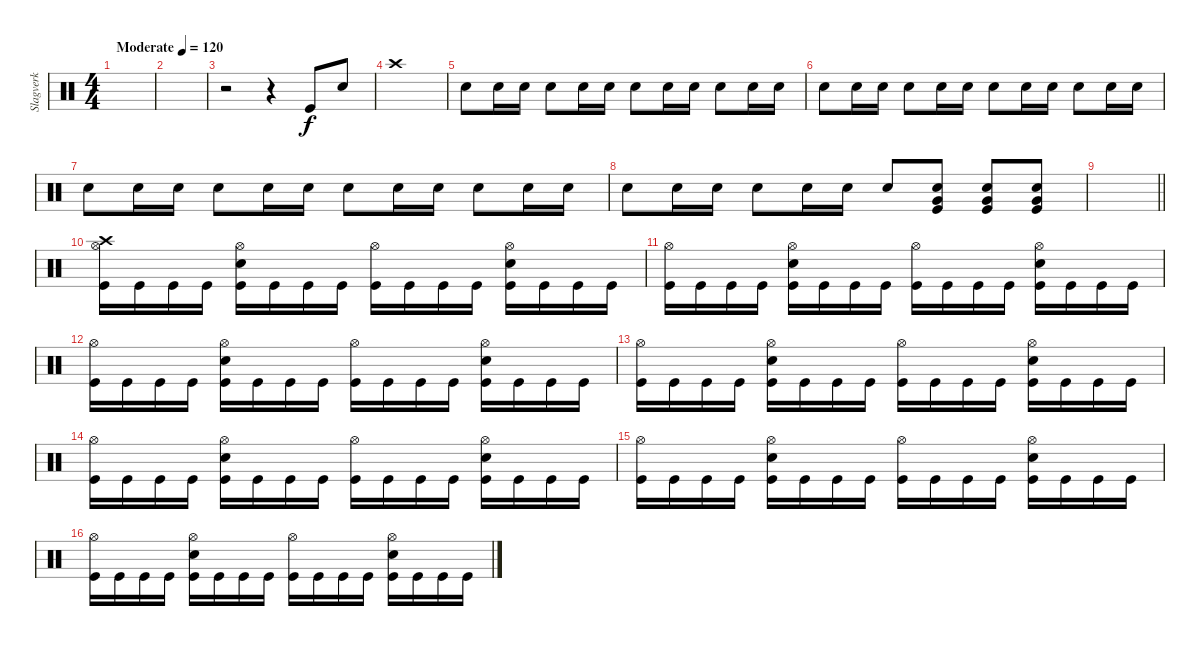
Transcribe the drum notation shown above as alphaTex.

\track ("Slagverk" "Slagverk") {instrument percussion}
\staff {score}
\articulation defaults
\ts (4 4)
\tempo (120 "Moderate")
\tempo 165
\tempo (120 "Moderate")
\clef neutral
\ks c
|
|
r.2 r.4 "Kick (hit)".8 "Electric Snare (hit)".8 |
"Crash high (hit)".1 |
"Electric Snare (hit)".8{volume 2} "Electric Snare (hit)".16 "Electric Snare (hit)".16 "Electric Snare (hit)".8 "Electric Snare (hit)".16 "Electric Snare (hit)".16 "Electric Snare (hit)".8{volume 4} "Electric Snare (hit)".16 "Electric Snare (hit)".16 "Electric Snare (hit)".8 "Electric Snare (hit)".16 "Electric Snare (hit)".16 |
"Electric Snare (hit)".8{volume 6} "Electric Snare (hit)".16 "Electric Snare (hit)".16 "Electric Snare (hit)".8 "Electric Snare (hit)".16 "Electric Snare (hit)".16 "Electric Snare (hit)".8{volume 8} "Electric Snare (hit)".16 "Electric Snare (hit)".16 "Electric Snare (hit)".8 "Electric Snare (hit)".16 "Electric Snare (hit)".16 |
"Electric Snare (hit)".8{volume 10} "Electric Snare (hit)".16 "Electric Snare (hit)".16 "Electric Snare (hit)".8 "Electric Snare (hit)".16 "Electric Snare (hit)".16 "Electric Snare (hit)".8{volume 12} "Electric Snare (hit)".16 "Electric Snare (hit)".16 "Electric Snare (hit)".8 "Electric Snare (hit)".16 "Electric Snare (hit)".16 |
"Electric Snare (hit)".8{volume 13} "Electric Snare (hit)".16 "Electric Snare (hit)".16 "Electric Snare (hit)".8 "Electric Snare (hit)".16 "Electric Snare (hit)".16 "Electric Snare (hit)".8 ("Very Low Tom (hit)" "Electric Snare (hit)" "Kick (hit)").8 ("Very Low Tom (hit)" "Electric Snare (hit)" "Kick (hit)").8 ("Very Low Tom (hit)" "Electric Snare (hit)" "Kick (hit)").8 |
\barLineRight lightlight
|
("Crash high (hit)" "Hi-Hat (open)" "Kick (hit)").16 "Kick (hit)".16 "Kick (hit)".16 "Kick (hit)".16 ("Hi-Hat (open)" "Electric Snare (hit)" "Kick (hit)").16 "Kick (hit)".16 "Kick (hit)".16 "Kick (hit)".16 ("Hi-Hat (open)" "Kick (hit)").16 "Kick (hit)".16 "Kick (hit)".16 "Kick (hit)".16 ("Hi-Hat (open)" "Electric Snare (hit)" "Kick (hit)").16 "Kick (hit)".16 "Kick (hit)".16 "Kick (hit)".16 |
("Hi-Hat (open)" "Kick (hit)").16 "Kick (hit)".16 "Kick (hit)".16 "Kick (hit)".16 ("Hi-Hat (open)" "Electric Snare (hit)" "Kick (hit)").16 "Kick (hit)".16 "Kick (hit)".16 "Kick (hit)".16 ("Hi-Hat (open)" "Kick (hit)").16 "Kick (hit)".16 "Kick (hit)".16 "Kick (hit)".16 ("Hi-Hat (open)" "Electric Snare (hit)" "Kick (hit)").16 "Kick (hit)".16 "Kick (hit)".16 "Kick (hit)".16 |
("Hi-Hat (open)" "Kick (hit)").16 "Kick (hit)".16 "Kick (hit)".16 "Kick (hit)".16 ("Hi-Hat (open)" "Electric Snare (hit)" "Kick (hit)").16 "Kick (hit)".16 "Kick (hit)".16 "Kick (hit)".16 ("Hi-Hat (open)" "Kick (hit)").16 "Kick (hit)".16 "Kick (hit)".16 "Kick (hit)".16 ("Hi-Hat (open)" "Electric Snare (hit)" "Kick (hit)").16 "Kick (hit)".16 "Kick (hit)".16 "Kick (hit)".16 |
("Hi-Hat (open)" "Kick (hit)").16 "Kick (hit)".16 "Kick (hit)".16 "Kick (hit)".16 ("Hi-Hat (open)" "Electric Snare (hit)" "Kick (hit)").16 "Kick (hit)".16 "Kick (hit)".16 "Kick (hit)".16 ("Hi-Hat (open)" "Kick (hit)").16 "Kick (hit)".16 "Kick (hit)".16 "Kick (hit)".16 ("Hi-Hat (open)" "Electric Snare (hit)" "Kick (hit)").16 "Kick (hit)".16 "Kick (hit)".16 "Kick (hit)".16 |
("Hi-Hat (open)" "Kick (hit)").16 "Kick (hit)".16 "Kick (hit)".16 "Kick (hit)".16 ("Hi-Hat (open)" "Electric Snare (hit)" "Kick (hit)").16 "Kick (hit)".16 "Kick (hit)".16 "Kick (hit)".16 ("Hi-Hat (open)" "Kick (hit)").16 "Kick (hit)".16 "Kick (hit)".16 "Kick (hit)".16 ("Hi-Hat (open)" "Electric Snare (hit)" "Kick (hit)").16 "Kick (hit)".16 "Kick (hit)".16 "Kick (hit)".16 |
("Hi-Hat (open)" "Kick (hit)").16 "Kick (hit)".16 "Kick (hit)".16 "Kick (hit)".16 ("Hi-Hat (open)" "Electric Snare (hit)" "Kick (hit)").16 "Kick (hit)".16 "Kick (hit)".16 "Kick (hit)".16 ("Hi-Hat (open)" "Kick (hit)").16 "Kick (hit)".16 "Kick (hit)".16 "Kick (hit)".16 ("Hi-Hat (open)" "Electric Snare (hit)" "Kick (hit)").16 "Kick (hit)".16 "Kick (hit)".16 "Kick (hit)".16 |
("Hi-Hat (open)" "Kick (hit)").16 "Kick (hit)".16 "Kick (hit)".16 "Kick (hit)".16 ("Hi-Hat (open)" "Electric Snare (hit)" "Kick (hit)").16 "Kick (hit)".16 "Kick (hit)".16 "Kick (hit)".16 ("Hi-Hat (open)" "Kick (hit)").16 "Kick (hit)".16 "Kick (hit)".16 "Kick (hit)".16 ("Hi-Hat (open)" "Electric Snare (hit)" "Kick (hit)").16 "Kick (hit)".16 "Kick (hit)".16 "Kick (hit)".16
